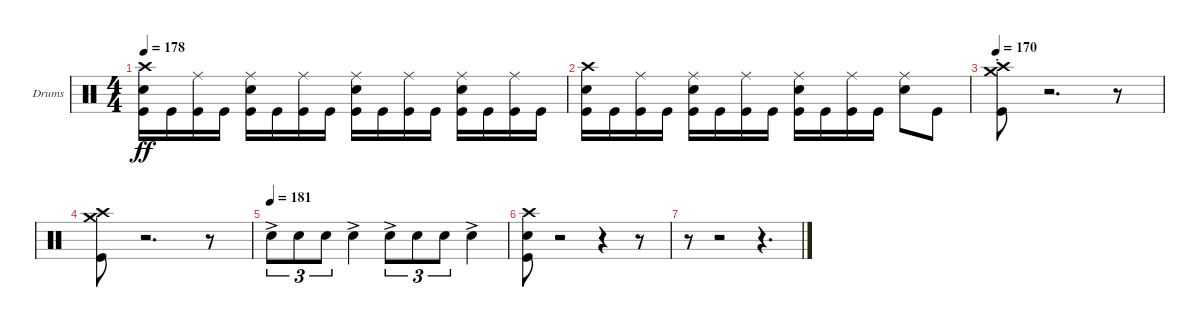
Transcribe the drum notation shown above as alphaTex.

\bracketExtendMode groupsimilarinstruments
\firstSystemTrackNameOrientation horizontal
\otherSystemsTrackNameOrientation horizontal
\track ("Drumkit" "Drums") {instrument percussion}
\staff {score}
\articulation defaults
\ts (4 4)
\tempo 178
\clef neutral
\scale
0.973518
\ks c
("Kick (hit)" "Snare (hit) 2" "Crash high (hit)").16{dy ff} "Kick (hit)".16 ("Kick (hit)" "Ride (middle)").16 "Kick (hit)".16 ("Kick (hit)" "Snare (hit) 2" "Ride (middle)").16 "Kick (hit)".16 ("Kick (hit)" "Ride (middle)").16 "Kick (hit)".16 ("Kick (hit)" "Snare (hit) 2" "Ride (middle)").16 "Kick (hit)".16 ("Kick (hit)" "Ride (middle)").16 "Kick (hit)".16 ("Kick (hit)" "Snare (hit) 2" "Ride (middle)").16 "Kick (hit)".16 ("Kick (hit)" "Ride (middle)").16 "Kick (hit)".16 |
\scale
1.02648 ("Kick (hit)" "Snare (hit) 2" "Crash high (hit)").16 "Kick (hit)".16 ("Kick (hit)" "Ride (middle)").16 "Kick (hit)".16 ("Kick (hit)" "Snare (hit) 2" "Ride (middle)").16 "Kick (hit)".16 ("Kick (hit)" "Ride (middle)").16 "Kick (hit)".16 ("Kick (hit)" "Snare (hit) 2" "Ride (middle)").16 "Kick (hit)".16 ("Kick (hit)" "Ride (middle)").16 "Kick (hit)".16 ("Snare (hit) 2" "Ride (middle)").8 "Kick (hit)".8 |
\tempo 170
\scale
0.973518 ("Kick (hit)" "Crash medium (hit)"{st} "Crash high (hit)"{st}).8 r.2{d} r.8 |
\scale
1.02648 ("Kick (hit)" "Crash medium (hit)" "Crash high (hit)").8 r.2{d} r.8 |
\tempo 181
\scale
0.973518 "Snare (hit) 2"{ac}.8{tu (3 2)} "Snare (hit) 2".8{tu (3 2)} "Snare (hit) 2".8{tu (3 2)} "Snare (hit) 2"{ac}.4 "Snare (hit) 2"{ac}.8{tu (3 2)} "Snare (hit) 2".8{tu (3 2)} "Snare (hit) 2".8{tu (3 2)} "Snare (hit) 2"{ac}.4 |
\scale
1.02648 ("Crash high (hit)" "Kick (hit)" "Snare (hit) 2").8 r.2 r.4 r.8 |
\scale
0.973518 r.8 r.2 r.4{d}
